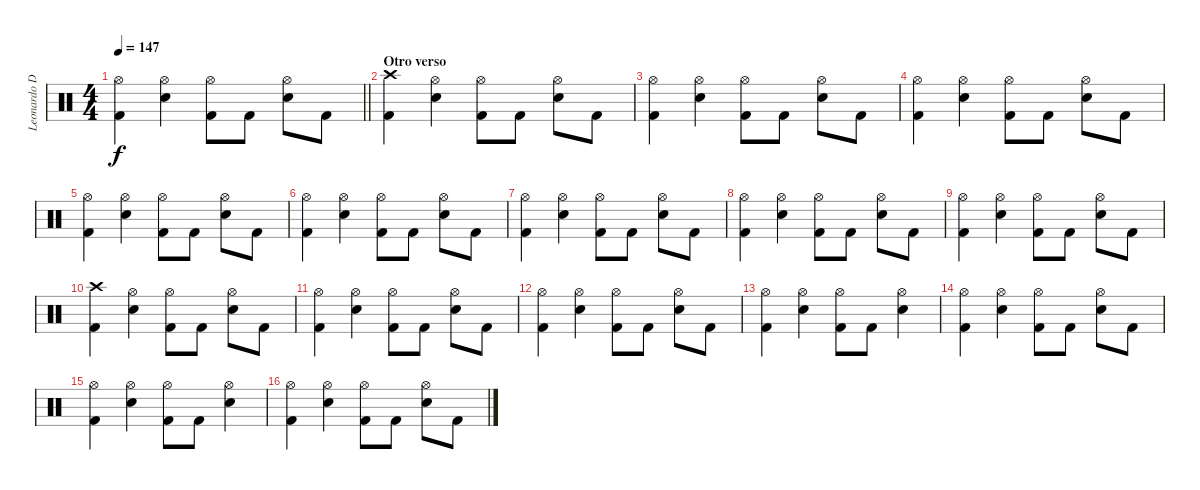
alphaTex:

\track ("Leonardo De Cecco" "Leonardo D") {instrument percussion}
\staff {score}
\articulation defaults
\ts (4 4)
\tempo 147
\clef neutral
\barLineRight lightlight
\ks c
("Hi-Hat (open)" "Kick (hit) 2").4{dy f} ("Hi-Hat (open)" "Electric Snare (hit)").4 ("Hi-Hat (open)" "Kick (hit) 2").8 "Kick (hit) 2".8 ("Hi-Hat (open)" "Electric Snare (hit)").8 "Kick (hit) 2".8 |
\section ("" "Otro verso")
("Crash high (hit)" "Kick (hit) 2").4 ("Hi-Hat (open)" "Electric Snare (hit)").4 ("Hi-Hat (open)" "Kick (hit) 2").8 "Kick (hit) 2".8 ("Hi-Hat (open)" "Electric Snare (hit)").8 "Kick (hit) 2".8 |
("Hi-Hat (open)" "Kick (hit) 2").4 ("Hi-Hat (open)" "Electric Snare (hit)").4 ("Hi-Hat (open)" "Kick (hit) 2").8 "Kick (hit) 2".8 ("Hi-Hat (open)" "Electric Snare (hit)").8 "Kick (hit) 2".8 |
("Hi-Hat (open)" "Kick (hit) 2").4 ("Hi-Hat (open)" "Electric Snare (hit)").4 ("Hi-Hat (open)" "Kick (hit) 2").8 "Kick (hit) 2".8 ("Hi-Hat (open)" "Electric Snare (hit)").8 "Kick (hit) 2".8 |
("Hi-Hat (open)" "Kick (hit) 2").4 ("Hi-Hat (open)" "Electric Snare (hit)").4 ("Hi-Hat (open)" "Kick (hit) 2").8 "Kick (hit) 2".8 ("Hi-Hat (open)" "Electric Snare (hit)").8 "Kick (hit) 2".8 |
("Hi-Hat (open)" "Kick (hit) 2").4 ("Hi-Hat (open)" "Electric Snare (hit)").4 ("Hi-Hat (open)" "Kick (hit) 2").8 "Kick (hit) 2".8 ("Hi-Hat (open)" "Electric Snare (hit)").8 "Kick (hit) 2".8 |
("Hi-Hat (open)" "Kick (hit) 2").4 ("Hi-Hat (open)" "Electric Snare (hit)").4 ("Hi-Hat (open)" "Kick (hit) 2").8 "Kick (hit) 2".8 ("Hi-Hat (open)" "Electric Snare (hit)").8 "Kick (hit) 2".8 |
("Hi-Hat (open)" "Kick (hit) 2").4 ("Hi-Hat (open)" "Electric Snare (hit)").4 ("Hi-Hat (open)" "Kick (hit) 2").8 "Kick (hit) 2".8 ("Hi-Hat (open)" "Electric Snare (hit)").8 "Kick (hit) 2".8 |
("Hi-Hat (open)" "Kick (hit) 2").4 ("Hi-Hat (open)" "Electric Snare (hit)").4 ("Hi-Hat (open)" "Kick (hit) 2").8 "Kick (hit) 2".8 ("Hi-Hat (open)" "Electric Snare (hit)").8 "Kick (hit) 2".8 |
("Crash high (hit)" "Kick (hit) 2").4 ("Hi-Hat (open)" "Electric Snare (hit)").4 ("Hi-Hat (open)" "Kick (hit) 2").8 "Kick (hit) 2".8 ("Hi-Hat (open)" "Electric Snare (hit)").8 "Kick (hit) 2".8 |
("Hi-Hat (open)" "Kick (hit) 2").4 ("Hi-Hat (open)" "Electric Snare (hit)").4 ("Hi-Hat (open)" "Kick (hit) 2").8 "Kick (hit) 2".8 ("Hi-Hat (open)" "Electric Snare (hit)").8 "Kick (hit) 2".8 |
("Hi-Hat (open)" "Kick (hit) 2").4 ("Hi-Hat (open)" "Electric Snare (hit)").4 ("Hi-Hat (open)" "Kick (hit) 2").8 "Kick (hit) 2".8 ("Hi-Hat (open)" "Electric Snare (hit)").8 "Kick (hit) 2".8 |
("Hi-Hat (open)" "Kick (hit) 2").4 ("Hi-Hat (open)" "Electric Snare (hit)").4 ("Hi-Hat (open)" "Kick (hit) 2").8 "Kick (hit) 2".8 ("Hi-Hat (open)" "Electric Snare (hit)").4 |
("Hi-Hat (open)" "Kick (hit) 2").4 ("Hi-Hat (open)" "Electric Snare (hit)").4 ("Hi-Hat (open)" "Kick (hit) 2").8 "Kick (hit) 2".8 ("Hi-Hat (open)" "Electric Snare (hit)").8 "Kick (hit) 2".8 |
("Hi-Hat (open)" "Kick (hit) 2").4 ("Hi-Hat (open)" "Electric Snare (hit)").4 ("Hi-Hat (open)" "Kick (hit) 2").8 "Kick (hit) 2".8 ("Hi-Hat (open)" "Electric Snare (hit)").4 |
("Hi-Hat (open)" "Kick (hit) 2").4 ("Hi-Hat (open)" "Electric Snare (hit)").4 ("Hi-Hat (open)" "Kick (hit) 2").8 "Kick (hit) 2".8 ("Hi-Hat (open)" "Electric Snare (hit)").8 "Kick (hit) 2".8
